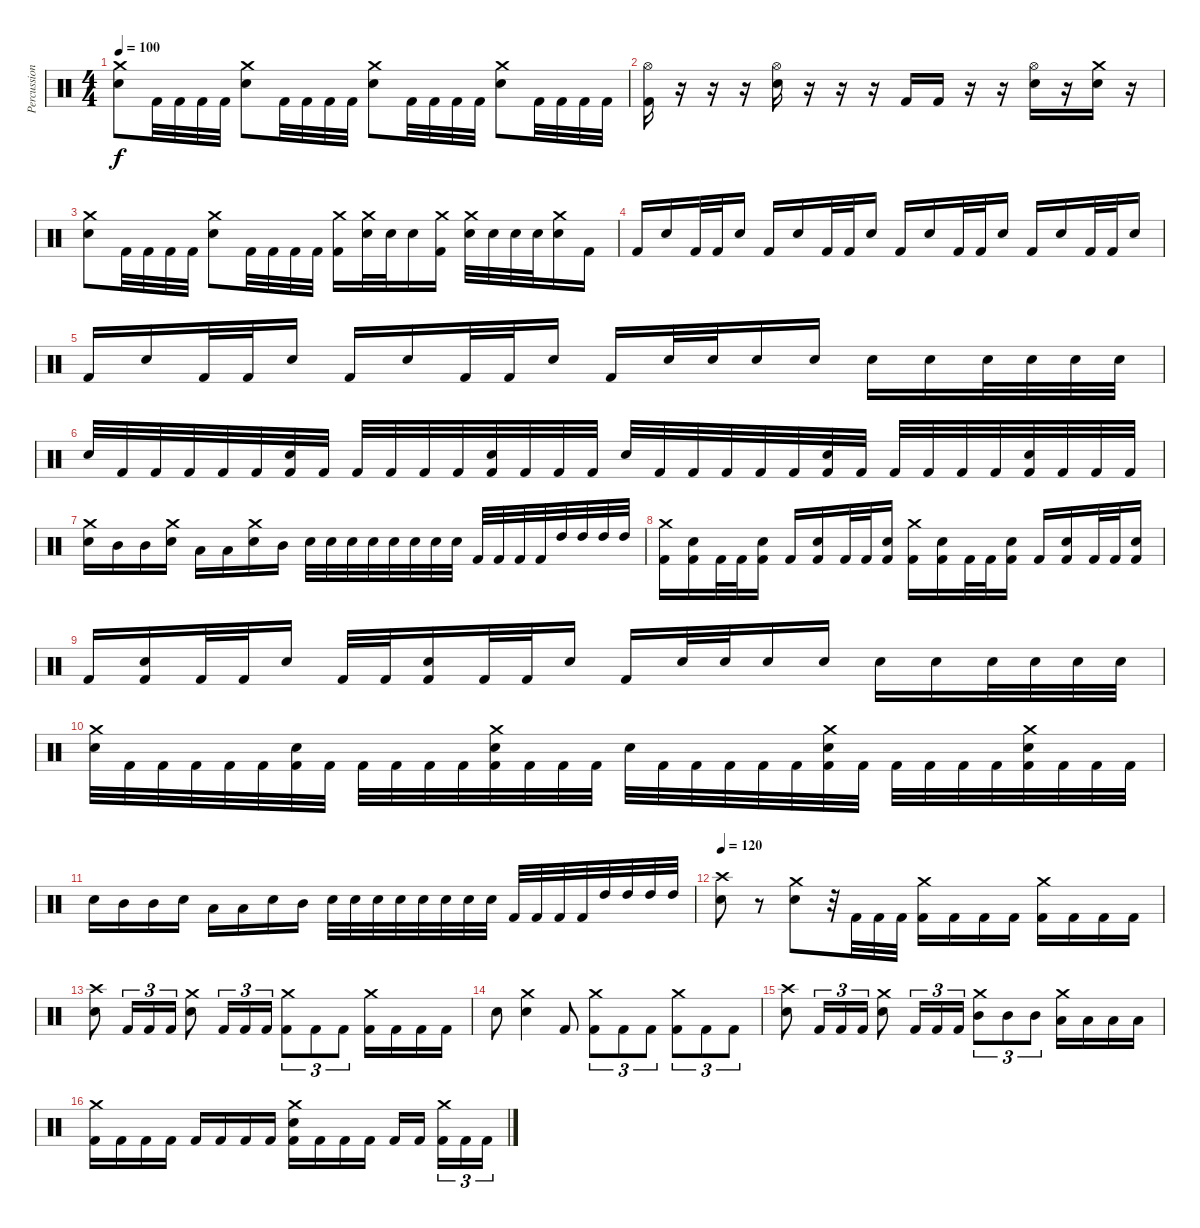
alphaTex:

\track ("Percussion" "Percussion") {instrument percussion}
\staff {score}
\articulation defaults
\ts (4 4)
\tempo 100
\clef neutral
\ks c
("Crash medium (hit)" "Electric Snare (hit)").8{dy f} "Kick (hit) 2".32 "Kick (hit) 2".32 "Kick (hit) 2".32 "Kick (hit) 2".32 ("Crash medium (hit)" "Snare (hit) 2").8 "Kick (hit) 2".32 "Kick (hit) 2".32 "Kick (hit) 2".32 "Kick (hit) 2".32 ("Crash medium (hit)" "Electric Snare (hit)").8 "Kick (hit) 2".32 "Kick (hit) 2".32 "Kick (hit) 2".32 "Kick (hit) 2".32 ("Crash medium (hit)" "Snare (hit) 2").8 "Kick (hit) 2".32 "Kick (hit) 2".32 "Kick (hit) 2".32 "Kick (hit) 2".32 |
("Hi-Hat (open)" "Kick (hit) 2").16 r.16 r.16 r.16 ("Snare (hit) 2" "Hi-Hat (open)").16 r.16 r.16 r.16 "Kick (hit) 2".16 "Kick (hit) 2".16 r.16 r.16 ("Hi-Hat (open)" "Snare (hit) 2").16 r.16 ("Crash medium (hit)" "Snare (hit) 2").16 r.16 |
("Crash medium (hit)" "Electric Snare (hit)").8 "Kick (hit) 2".32 "Kick (hit) 2".32 "Kick (hit) 2".32 "Kick (hit) 2".32 ("Crash medium (hit)" "Snare (hit) 2").8 "Kick (hit) 2".32 "Kick (hit) 2".32 "Kick (hit) 2".32 "Kick (hit) 2".32 ("Crash medium (hit)" "Kick (hit) 2").16 ("Crash medium (hit)" "Electric Snare (hit)").32 "Electric Snare (hit)".32 "Electric Snare (hit)".16 ("Crash medium (hit)" "Kick (hit) 2").16 ("Crash medium (hit)" "Electric Snare (hit)").32 "Electric Snare (hit)".32 "Electric Snare (hit)".32 "Electric Snare (hit)".32 ("Crash medium (hit)" "Electric Snare (hit)").16 "Kick (hit) 2".16 |
"Kick (hit) 2".16 "Electric Snare (hit)".16 "Kick (hit) 2".32 "Kick (hit) 2".32 "Electric Snare (hit)".16 "Kick (hit) 2".16 "Electric Snare (hit)".16 "Kick (hit) 2".32 "Kick (hit) 2".32 "Electric Snare (hit)".16 "Kick (hit) 2".16 "Electric Snare (hit)".16 "Kick (hit) 2".32 "Kick (hit) 2".32 "Electric Snare (hit)".16 "Kick (hit) 2".16 "Electric Snare (hit)".16 "Kick (hit) 2".32 "Kick (hit) 2".32 "Electric Snare (hit)".16 |
"Kick (hit) 2".16 "Electric Snare (hit)".16 "Kick (hit) 2".32 "Kick (hit) 2".32 "Electric Snare (hit)".16 "Kick (hit) 2".16 "Electric Snare (hit)".16 "Kick (hit) 2".32 "Kick (hit) 2".32 "Electric Snare (hit)".16 "Kick (hit) 2".16 "Electric Snare (hit)".32 "Electric Snare (hit)".32 "Electric Snare (hit)".16 "Electric Snare (hit)".16 "Electric Snare (hit)".16 "Electric Snare (hit)".16 "Electric Snare (hit)".32 "Electric Snare (hit)".32 "Electric Snare (hit)".32 "Electric Snare (hit)".32 |
"Snare (hit) 2".32 "Kick (hit) 2".32 "Kick (hit) 2".32 "Kick (hit) 2".32 "Kick (hit) 2".32 "Kick (hit) 2".32 ("Kick (hit) 2" "Snare (hit) 2").32 "Kick (hit) 2".32 "Kick (hit) 2".32 "Kick (hit) 2".32 "Kick (hit) 2".32 "Kick (hit) 2".32 ("Kick (hit) 2" "Snare (hit) 2").32 "Kick (hit) 2".32 "Kick (hit) 2".32 "Kick (hit) 2".32 "Snare (hit) 2".32 "Kick (hit) 2".32 "Kick (hit) 2".32 "Kick (hit) 2".32 "Kick (hit) 2".32 "Kick (hit) 2".32 ("Kick (hit) 2" "Snare (hit) 2").32 "Kick (hit) 2".32 "Kick (hit) 2".32 "Kick (hit) 2".32 "Kick (hit) 2".32 "Kick (hit) 2".32 ("Kick (hit) 2" "Snare (hit) 2").32 "Kick (hit) 2".32 "Kick (hit) 2".32 "Kick (hit) 2".32 |
("Crash medium (hit)" "Electric Snare (hit)").16 "Mid Tom (hit)".16 "Mid Tom (hit)".16 ("Crash medium (hit)" "Electric Snare (hit)").16 "Low Tom (hit)".16 "Low Tom (hit)".16 ("Crash medium (hit)" "Electric Snare (hit)").16 "Mid Tom (hit)".16 "Electric Snare (hit)".32 "Electric Snare (hit)".32 "Electric Snare (hit)".32 "Electric Snare (hit)".32 "Snare (hit) 2".32 "Snare (hit) 2".32 "Snare (hit) 2".32 "Snare (hit) 2".32 "Kick (hit) 2".32 "Kick (hit) 2".32 "Kick (hit) 2".32 "Kick (hit) 2".32 "High Tom (hit)".32 "High Tom (hit)".32 "High Tom (hit)".32 "High Tom (hit)".32 |
("Crash medium (hit)" "Kick (hit) 2").16 ("Kick (hit) 2" "Electric Snare (hit)").16 "Kick (hit) 2".32 "Kick (hit) 2".32 ("Kick (hit) 2" "Electric Snare (hit)").16 "Kick (hit) 2".16 ("Kick (hit) 2" "Electric Snare (hit)").16 "Kick (hit) 2".32 "Kick (hit) 2".32 ("Kick (hit) 2" "Electric Snare (hit)").16 ("Crash medium (hit)" "Kick (hit) 2").16 ("Kick (hit) 2" "Electric Snare (hit)").16 "Kick (hit) 2".32 "Kick (hit) 2".32 ("Kick (hit) 2" "Electric Snare (hit)").16 "Kick (hit) 2".16 ("Kick (hit) 2" "Electric Snare (hit)").16 "Kick (hit) 2".32 "Kick (hit) 2".32 ("Kick (hit) 2" "Electric Snare (hit)").16 |
"Kick (hit) 2".16 ("Kick (hit) 2" "Electric Snare (hit)").16 "Kick (hit) 2".32 "Kick (hit) 2".32 "Electric Snare (hit)".16 "Kick (hit) 2".32 "Kick (hit) 2".32 ("Kick (hit) 2" "Electric Snare (hit)").16 "Kick (hit) 2".32 "Kick (hit) 2".32 "Electric Snare (hit)".16 "Kick (hit) 2".16 "Electric Snare (hit)".32 "Electric Snare (hit)".32 "Electric Snare (hit)".16 "Electric Snare (hit)".16 "Electric Snare (hit)".16 "Electric Snare (hit)".16 "Electric Snare (hit)".32 "Electric Snare (hit)".32 "Electric Snare (hit)".32 "Electric Snare (hit)".32 |
("Crash medium (hit)" "Snare (hit) 2").32 "Kick (hit) 2".32 "Kick (hit) 2".32 "Kick (hit) 2".32 "Kick (hit) 2".32 "Kick (hit) 2".32 ("Kick (hit) 2" "Snare (hit) 2").32 "Kick (hit) 2".32 "Kick (hit) 2".32 "Kick (hit) 2".32 "Kick (hit) 2".32 "Kick (hit) 2".32 ("Crash medium (hit)" "Kick (hit) 2" "Snare (hit) 2").32 "Kick (hit) 2".32 "Kick (hit) 2".32 "Kick (hit) 2".32 "Snare (hit) 2".32 "Kick (hit) 2".32 "Kick (hit) 2".32 "Kick (hit) 2".32 "Kick (hit) 2".32 "Kick (hit) 2".32 ("Crash medium (hit)" "Kick (hit) 2" "Snare (hit) 2").32 "Kick (hit) 2".32 "Kick (hit) 2".32 "Kick (hit) 2".32 "Kick (hit) 2".32 "Kick (hit) 2".32 ("Crash medium (hit)" "Kick (hit) 2" "Snare (hit) 2").32 "Kick (hit) 2".32 "Kick (hit) 2".32 "Kick (hit) 2".32 |
"Snare (hit) 2".16 "Mid Tom (hit)".16 "Mid Tom (hit)".16 "Snare (hit) 2".16 "Low Tom (hit)".16 "Low Tom (hit)".16 "Snare (hit) 2".16 "Mid Tom (hit)".16 "Electric Snare (hit)".32 "Electric Snare (hit)".32 "Electric Snare (hit)".32 "Electric Snare (hit)".32 "Snare (hit) 2".32 "Snare (hit) 2".32 "Snare (hit) 2".32 "Snare (hit) 2".32 "Kick (hit) 2".32 "Kick (hit) 2".32 "Kick (hit) 2".32 "Kick (hit) 2".32 "High Tom (hit)".32 "High Tom (hit)".32 "High Tom (hit)".32 "High Tom (hit)".32 |
\tempo 120
("Crash high (hit)" "Electric Snare (hit)").8 r.8 ("Crash medium (hit)" "Snare (hit) 2").8 r.32 "Kick (hit) 2".32 "Kick (hit) 2".32 "Kick (hit) 2".32 ("Crash medium (hit)" "Kick (hit) 2").16 "Kick (hit) 2".16 "Kick (hit) 2".16 "Kick (hit) 2".16 ("Crash medium (hit)" "Kick (hit) 2").16 "Kick (hit) 2".16 "Kick (hit) 2".16 "Kick (hit) 2".16 |
("Crash high (hit)" "Snare (hit) 2").8 "Kick (hit) 2".16{tu (3 2)} "Kick (hit) 2".16{tu (3 2)} "Kick (hit) 2".16{tu (3 2)} ("Crash medium (hit)" "Snare (hit) 2").8 "Kick (hit) 2".16{tu (3 2)} "Kick (hit) 2".16{tu (3 2)} "Kick (hit) 2".16{tu (3 2)} ("Crash medium (hit)" "Kick (hit) 2").8{tu (3 2)} "Kick (hit) 2".8{tu (3 2)} "Kick (hit) 2".8{tu (3 2)} ("Crash medium (hit)" "Kick (hit) 2").16 "Kick (hit) 2".16 "Kick (hit) 2".16 "Kick (hit) 2".16 |
"Electric Snare (hit)".8 ("Crash medium (hit)" "Snare (hit) 2").4 "Kick (hit) 2".8 ("Crash medium (hit)" "Kick (hit) 2").8{tu (3 2)} "Kick (hit) 2".8{tu (3 2)} "Kick (hit) 2".8{tu (3 2)} ("Crash medium (hit)" "Kick (hit) 2").8{tu (3 2)} "Kick (hit) 2".8{tu (3 2)} "Kick (hit) 2".8{tu (3 2)} |
("Crash high (hit)" "Snare (hit) 2").8 "Kick (hit) 2".16{tu (3 2)} "Kick (hit) 2".16{tu (3 2)} "Kick (hit) 2".16{tu (3 2)} ("Crash medium (hit)" "Snare (hit) 2").8 "Kick (hit) 2".16{tu (3 2)} "Kick (hit) 2".16{tu (3 2)} "Kick (hit) 2".16{tu (3 2)} ("Crash medium (hit)" "Mid Tom (hit)").8{tu (3 2)} "Mid Tom (hit)".8{tu (3 2)} "Mid Tom (hit)".8{tu (3 2)} ("Crash medium (hit)" "Low Tom (hit)").16 "Low Tom (hit)".16 "Low Tom (hit)".16 "Low Tom (hit)".16 |
("Crash medium (hit)" "Kick (hit) 2").16 "Kick (hit) 2".16 "Kick (hit) 2".16 "Kick (hit) 2".16 "Kick (hit) 2".16 "Kick (hit) 2".16 "Kick (hit) 2".16 "Kick (hit) 2".16 ("Crash medium (hit)" "Kick (hit) 2" "Electric Snare (hit)").16 "Kick (hit) 2".16 "Kick (hit) 2".16 "Kick (hit) 2".16 "Kick (hit) 2".16 "Kick (hit) 2".16{beam splitsecondary} ("Crash medium (hit)" "Kick (hit) 2").16{tu (3 2)} "Kick (hit) 2".16{tu (3 2)} "Kick (hit) 2".16{tu (3 2)}
